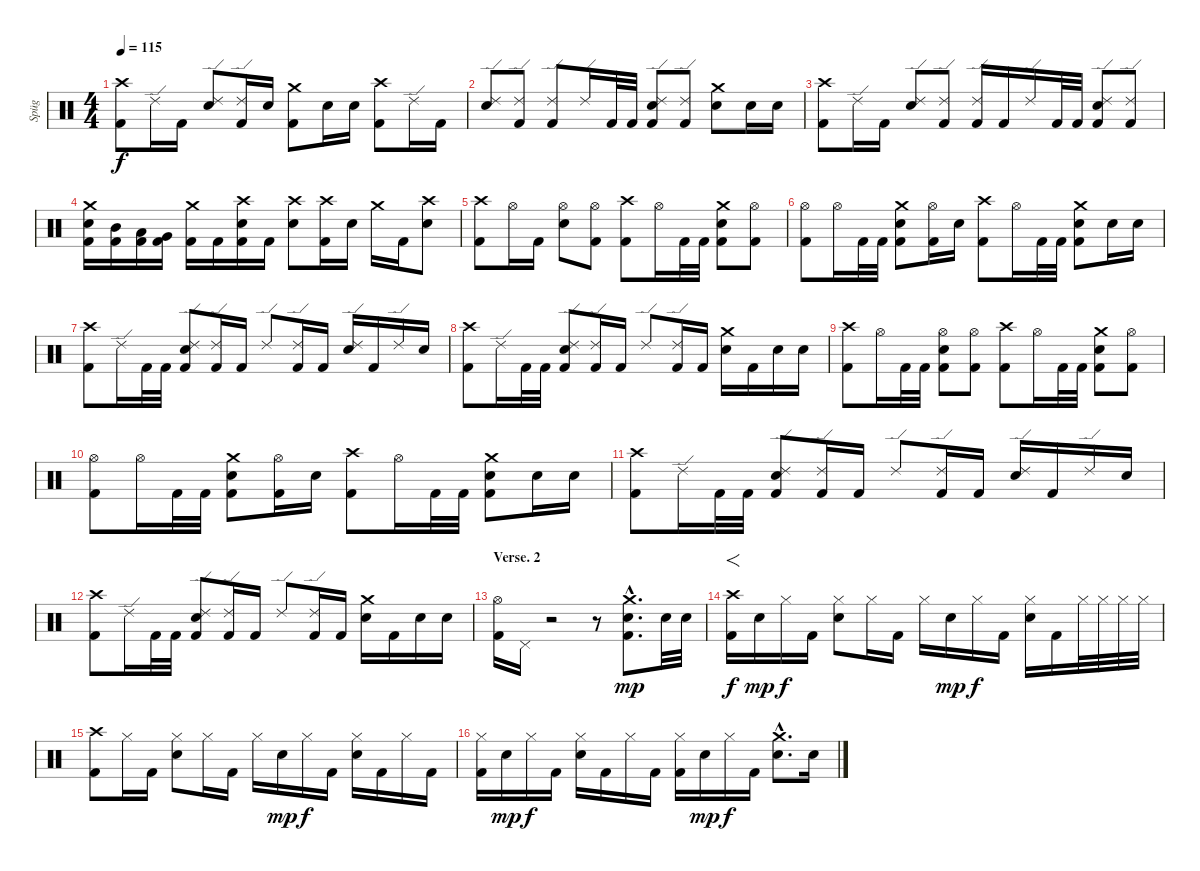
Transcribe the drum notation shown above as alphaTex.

\track ("Spüg" "Spüg") {instrument percussion}
\staff {score}
\articulation defaults
\ts (4 4)
\tempo 115
\clef neutral
\ks c
("Crash high (hit)" "Kick (hit) 2").8{dy f} "Ride (edge) 2".16 "Kick (hit) 2".16 ("Ride (edge) 2" "Electric Snare (hit)").8 ("Ride (edge) 2" "Kick (hit) 2").16 "Electric Snare (hit)".16 ("Crash medium (hit)" "Kick (hit) 2").8 "Electric Snare (hit)".16 "Electric Snare (hit)".16 ("Crash high (hit)" "Kick (hit) 2").8 "Ride (edge) 2".16 "Kick (hit) 2".16 |
("Ride (edge) 2" "Electric Snare (hit)").8 ("Ride (edge) 2" "Kick (hit) 2").8 ("Ride (edge) 2" "Kick (hit) 2").8 "Ride (edge) 2".16 "Kick (hit) 2".32 "Kick (hit) 2".32 ("Ride (edge) 2" "Electric Snare (hit)" "Kick (hit) 2").8 ("Ride (edge) 2" "Kick (hit) 2").8 ("Crash medium (hit)" "Electric Snare (hit)").8 "Electric Snare (hit)".16 "Electric Snare (hit)".16 |
("Crash high (hit)" "Kick (hit) 2").8 "Ride (edge) 2".16 "Kick (hit) 2".16 ("Ride (edge) 2" "Electric Snare (hit)").8 ("Ride (edge) 2" "Kick (hit) 2").8 ("Ride (edge) 2" "Kick (hit) 2").16 "Kick (hit) 2".16 "Ride (edge) 2".16 "Kick (hit) 2".32 "Kick (hit) 2".32 ("Ride (edge) 2" "Electric Snare (hit)" "Kick (hit) 2").8 ("Ride (edge) 2" "Kick (hit) 2").8 |
("Crash medium (hit)" "Electric Snare (hit)" "Kick (hit) 2").16 ("Mid Tom (hit)" "Kick (hit) 2").16 ("Low Tom (hit)" "Kick (hit) 2").16 ("Very Low Tom (hit)" "Kick (hit) 2").16 ("Crash medium (hit)" "Kick (hit) 2").16 "Kick (hit) 2".16 ("Crash high (hit)" "Electric Snare (hit)" "Kick (hit) 2").16 "Kick (hit) 2".16 ("Crash high (hit)" "Electric Snare (hit)").8 ("Crash high (hit)" "Kick (hit) 2").16 "Electric Snare (hit)".16 "Crash medium (hit)".16 "Kick (hit) 2".16 ("Crash high (hit)" "Electric Snare (hit)").8 |
("Crash high (hit)" "Kick (hit) 2").8 "Hi-Hat (open)".16 "Kick (hit) 2".16 ("Hi-Hat (open)" "Electric Snare (hit)").8 ("Hi-Hat (open)" "Kick (hit) 2").8 ("Crash high (hit)" "Kick (hit) 2").8 "Hi-Hat (open)".16 "Kick (hit) 2".32 "Kick (hit) 2".32 ("Crash medium (hit)" "Electric Snare (hit)" "Kick (hit) 2").8 ("Hi-Hat (open)" "Kick (hit) 2").8 |
("Hi-Hat (open)" "Kick (hit) 2").8 "Hi-Hat (open)".16 "Kick (hit) 2".32 "Kick (hit) 2".32 ("Crash medium (hit)" "Electric Snare (hit)" "Kick (hit) 2").8 ("Hi-Hat (open)" "Kick (hit) 2").16 "Electric Snare (hit)".16 ("Crash high (hit)" "Kick (hit) 2").8 "Hi-Hat (open)".16 "Kick (hit) 2".32 "Kick (hit) 2".32 ("Crash medium (hit)" "Electric Snare (hit)" "Kick (hit) 2").8 "Electric Snare (hit)".16 "Electric Snare (hit)".16 |
("Crash high (hit)" "Kick (hit) 2").8 "Ride (edge) 2".16 "Kick (hit) 2".32 "Kick (hit) 2".32 ("Ride (edge) 2" "Electric Snare (hit)" "Kick (hit) 2").8 ("Ride (edge) 2" "Kick (hit) 2").16 "Kick (hit) 2".16 "Ride (edge) 2".8 ("Ride (edge) 2" "Kick (hit) 2").16 "Kick (hit) 2".16 ("Ride (edge) 2" "Electric Snare (hit)").16 "Kick (hit) 2".16 "Ride (edge) 2".16 "Electric Snare (hit)".16 |
("Crash high (hit)" "Kick (hit) 2").8 "Ride (edge) 2".16 "Kick (hit) 2".32 "Kick (hit) 2".32 ("Ride (edge) 2" "Electric Snare (hit)" "Kick (hit) 2").8 ("Ride (edge) 2" "Kick (hit) 2").16 "Kick (hit) 2".16 "Ride (edge) 2".8 ("Ride (edge) 2" "Kick (hit) 2").16 "Kick (hit) 2".16 ("Crash medium (hit)" "Electric Snare (hit)").16 "Kick (hit) 2".16 "Electric Snare (hit)".16 "Electric Snare (hit)".16 |
("Crash high (hit)" "Kick (hit) 2").8 "Hi-Hat (open)".16 "Kick (hit) 2".32 "Kick (hit) 2".32 ("Hi-Hat (open)" "Electric Snare (hit)" "Kick (hit) 2").8 ("Hi-Hat (open)" "Kick (hit) 2").8 ("Crash high (hit)" "Kick (hit) 2").8 "Hi-Hat (open)".16 "Kick (hit) 2".32 "Kick (hit) 2".32 ("Crash medium (hit)" "Electric Snare (hit)" "Kick (hit) 2").8 ("Hi-Hat (open)" "Kick (hit) 2").8 |
("Hi-Hat (open)" "Kick (hit) 2").8 "Hi-Hat (open)".16 "Kick (hit) 2".32 "Kick (hit) 2".32 ("Crash medium (hit)" "Electric Snare (hit)" "Kick (hit) 2").8 ("Hi-Hat (open)" "Kick (hit) 2").16 "Electric Snare (hit)".16 ("Crash high (hit)" "Kick (hit) 2").8 "Hi-Hat (open)".16 "Kick (hit) 2".32 "Kick (hit) 2".32 ("Crash medium (hit)" "Electric Snare (hit)" "Kick (hit) 2").8 "Electric Snare (hit)".16 "Electric Snare (hit)".16 |
("Crash high (hit)" "Kick (hit) 2").8 "Ride (edge) 2".16 "Kick (hit) 2".32 "Kick (hit) 2".32 ("Ride (edge) 2" "Electric Snare (hit)" "Kick (hit) 2").8 ("Ride (edge) 2" "Kick (hit) 2").16 "Kick (hit) 2".16 "Ride (edge) 2".8 ("Ride (edge) 2" "Kick (hit) 2").16 "Kick (hit) 2".16 ("Ride (edge) 2" "Electric Snare (hit)").16 "Kick (hit) 2".16 "Ride (edge) 2".16 "Electric Snare (hit)".16 |
("Crash high (hit)" "Kick (hit) 2").8 "Ride (edge) 2".16 "Kick (hit) 2".32 "Kick (hit) 2".32 ("Ride (edge) 2" "Electric Snare (hit)" "Kick (hit) 2").8 ("Ride (edge) 2" "Kick (hit) 2").16 "Kick (hit) 2".16 "Ride (edge) 2".8 ("Ride (edge) 2" "Kick (hit) 2").16 "Kick (hit) 2".16 ("Crash medium (hit)" "Electric Snare (hit)").16 "Kick (hit) 2".16 "Electric Snare (hit)".16 "Electric Snare (hit)".16 |
\section ("" "Verse. 2")
("Hi-Hat (open)" "Kick (hit) 2").16 "Pedal Hi-Hat (hit)".16 r.2 r.8 ("Crash medium (hit)"{hac} "Electric Snare (hit)"{hac} "Kick (hit) 2"{hac}).8{d dy mp} "Electric Snare (hit)".32 "Electric Snare (hit)".32 |
("Crash high (hit)" "Kick (hit) 2").16{f dy f} "Electric Snare (hit)".16{dy mp} "Hi-Hat (closed)".16{dy f} "Kick (hit) 2".16 ("Hi-Hat (closed)" "Electric Snare (hit)").8 "Hi-Hat (closed)".16 "Kick (hit) 2".16 "Hi-Hat (closed)".16 "Electric Snare (hit)".16{dy mp} "Hi-Hat (closed)".16{dy f} "Kick (hit) 2".16 ("Hi-Hat (closed)" "Electric Snare (hit)").16 "Kick (hit) 2".16 "Hi-Hat (closed)".32 "Hi-Hat (closed)".32 "Hi-Hat (closed)".32 "Hi-Hat (closed)".32 |
("Crash high (hit)" "Kick (hit) 2").8 "Hi-Hat (closed)".16 "Kick (hit) 2".16 ("Hi-Hat (closed)" "Electric Snare (hit)").8 "Hi-Hat (closed)".16 "Kick (hit) 2".16 "Hi-Hat (closed)".16 "Electric Snare (hit)".16{dy mp} "Hi-Hat (closed)".16{dy f} "Kick (hit) 2".16 ("Hi-Hat (closed)" "Electric Snare (hit)").16 "Kick (hit) 2".16 "Hi-Hat (closed)".16 "Kick (hit) 2".16 |
("Hi-Hat (closed)" "Kick (hit) 2").16 "Electric Snare (hit)".16{dy mp} "Hi-Hat (closed)".16{dy f} "Kick (hit) 2".16 ("Hi-Hat (closed)" "Electric Snare (hit)").16 "Kick (hit) 2".16 "Hi-Hat (closed)".16 "Kick (hit) 2".16 ("Hi-Hat (closed)" "Kick (hit) 2").16 "Electric Snare (hit)".16{dy mp} "Hi-Hat (closed)".16{dy f} "Kick (hit) 2".16 ("Crash medium (hit)"{hac} "Electric Snare (hit)"{hac}).8{d} "Electric Snare (hit)".16
